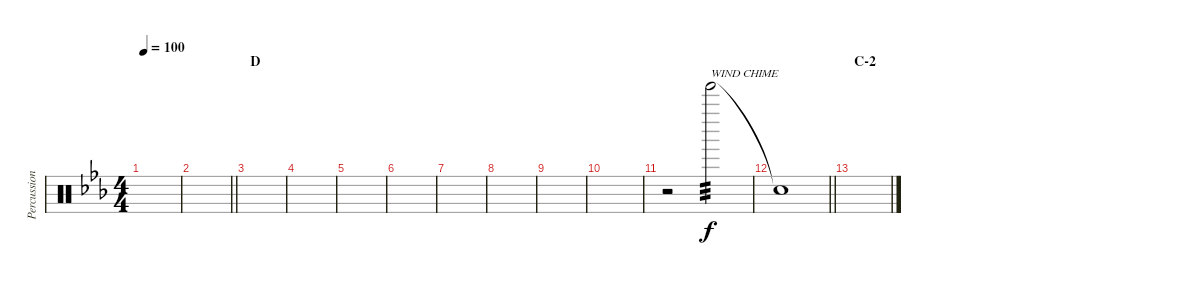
\track ("Percussion (Tainaka Ritsu)" "Percussion") {instrument percussion}
\staff {score}
\articulation defaults
\ts (4 4)
\tempo 100
\clef neutral
\ks eb
|
\barLineRight lightlight
|
\section ("" "D")
|
|
|
|
|
|
|
|
r.2 "Tinkle Bell (hit)".2{txt "WIND CHIME" tp 3} |
\barLineRight lightlight "Snare (hit)"{t}.1{dy f}
|
\section ("" "C-2")
